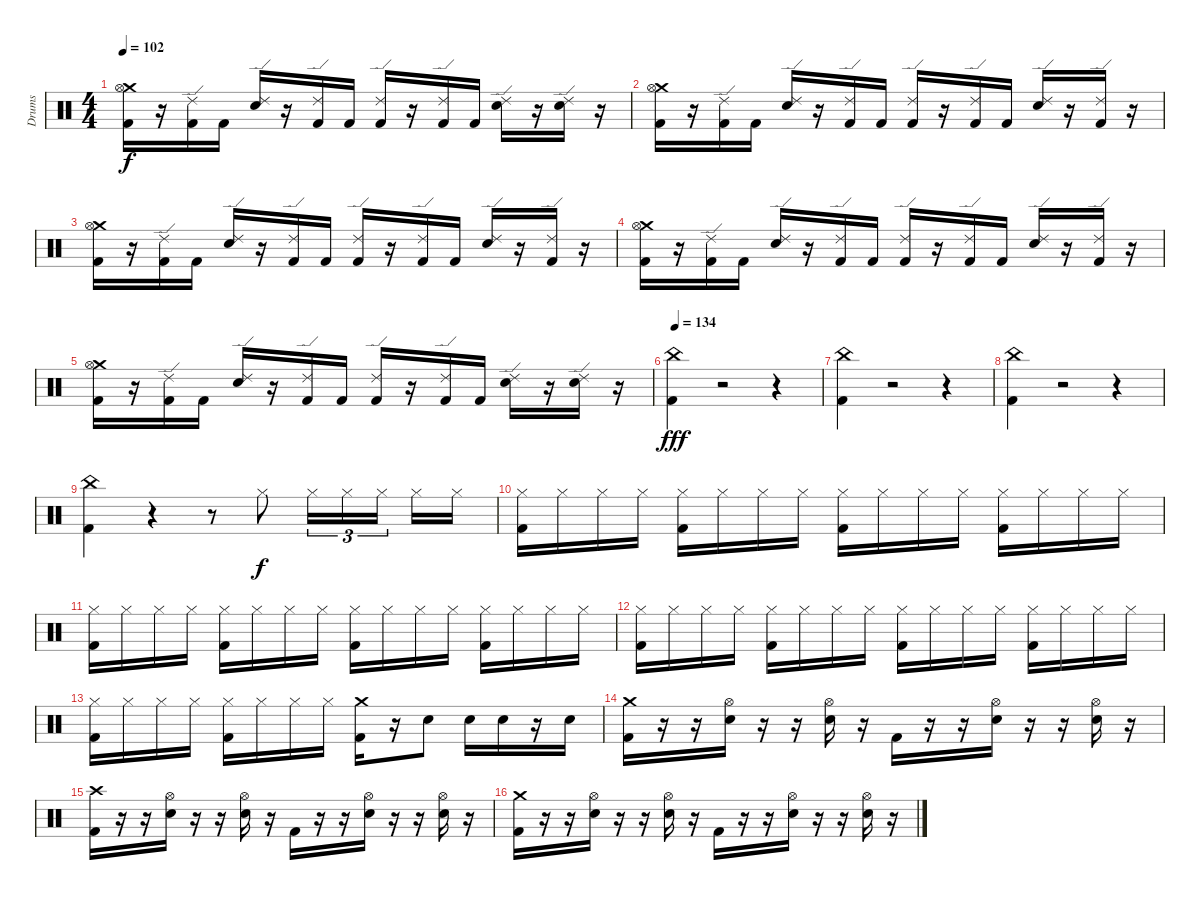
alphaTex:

\track ("Drums" "Drums") {instrument percussion}
\staff {score}
\articulation defaults
\ts (4 4)
\tempo 102
\clef neutral
\ks c
("Crash medium (hit)" "Hi-Hat (open)" "Kick (hit) 2").16{dy f} r.16 ("Ride (edge) 2" "Kick (hit) 2").16 "Kick (hit) 2".16 ("Ride (edge) 2" "Electric Snare (hit)").16 r.16 ("Ride (edge) 2" "Kick (hit) 2").16 "Kick (hit) 2".16 ("Ride (edge) 2" "Kick (hit) 2").16 r.16 ("Ride (edge) 2" "Kick (hit) 2").16 "Kick (hit) 2".16 ("Ride (edge) 2" "Electric Snare (hit)").16 r.16 ("Ride (edge) 2" "Electric Snare (hit)").16 r.16 |
("Crash medium (hit)" "Hi-Hat (open)" "Kick (hit) 2").16 r.16 ("Ride (edge) 2" "Kick (hit) 2").16 "Kick (hit) 2".16 ("Ride (edge) 2" "Electric Snare (hit)").16 r.16 ("Ride (edge) 2" "Kick (hit) 2").16 "Kick (hit) 2".16 ("Ride (edge) 2" "Kick (hit) 2").16 r.16 ("Ride (edge) 2" "Kick (hit) 2").16 "Kick (hit) 2".16 ("Ride (edge) 2" "Electric Snare (hit)").16 r.16 ("Ride (edge) 2" "Kick (hit) 2").16 r.16 |
("Crash medium (hit)" "Hi-Hat (open)" "Kick (hit) 2").16 r.16 ("Ride (edge) 2" "Kick (hit) 2").16 "Kick (hit) 2".16 ("Ride (edge) 2" "Electric Snare (hit)").16 r.16 ("Ride (edge) 2" "Kick (hit) 2").16 "Kick (hit) 2".16 ("Ride (edge) 2" "Kick (hit) 2").16 r.16 ("Ride (edge) 2" "Kick (hit) 2").16 "Kick (hit) 2".16 ("Ride (edge) 2" "Electric Snare (hit)").16 r.16 ("Ride (edge) 2" "Kick (hit) 2").16 r.16 |
("Crash medium (hit)" "Hi-Hat (open)" "Kick (hit) 2").16 r.16 ("Ride (edge) 2" "Kick (hit) 2").16 "Kick (hit) 2".16 ("Ride (edge) 2" "Electric Snare (hit)").16 r.16 ("Ride (edge) 2" "Kick (hit) 2").16 "Kick (hit) 2".16 ("Ride (edge) 2" "Kick (hit) 2").16 r.16 ("Ride (edge) 2" "Kick (hit) 2").16 "Kick (hit) 2".16 ("Ride (edge) 2" "Electric Snare (hit)").16 r.16 ("Ride (edge) 2" "Kick (hit) 2").16 r.16 |
("Crash medium (hit)" "Hi-Hat (open)" "Kick (hit) 2").16 r.16 ("Ride (edge) 2" "Kick (hit) 2").16 "Kick (hit) 2".16 ("Ride (edge) 2" "Electric Snare (hit)").16 r.16 ("Ride (edge) 2" "Kick (hit) 2").16 "Kick (hit) 2".16 ("Ride (edge) 2" "Kick (hit) 2").16 r.16 ("Ride (edge) 2" "Kick (hit) 2").16 "Kick (hit) 2".16 ("Ride (edge) 2" "Electric Snare (hit)").16 r.16 ("Ride (edge) 2" "Electric Snare (hit)").16 r.16 |
\section ("" "")
\tempo 134
("China (hit)" "Kick (hit) 2").4{dy fff} r.2 r.4 |
("China (hit)" "Kick (hit) 2").4 r.2 r.4 |
("China (hit)" "Kick (hit) 2").4 r.2 r.4 |
("China (hit)" "Kick (hit) 2").4 r.4 r.8 "Hi-Hat (closed)".8{dy f} "Hi-Hat (closed)".16{tu (3 2)} "Hi-Hat (closed)".16{tu (3 2)} "Hi-Hat (closed)".16{tu (3 2)} "Hi-Hat (closed)".16 "Hi-Hat (closed)".16 |
("Hi-Hat (closed)" "Kick (hit) 2").16 "Hi-Hat (closed)".16 "Hi-Hat (closed)".16 "Hi-Hat (closed)".16 ("Hi-Hat (closed)" "Kick (hit) 2").16 "Hi-Hat (closed)".16 "Hi-Hat (closed)".16 "Hi-Hat (closed)".16 ("Hi-Hat (closed)" "Kick (hit) 2").16 "Hi-Hat (closed)".16 "Hi-Hat (closed)".16 "Hi-Hat (closed)".16 ("Hi-Hat (closed)" "Kick (hit) 2").16 "Hi-Hat (closed)".16 "Hi-Hat (closed)".16 "Hi-Hat (closed)".16 |
("Hi-Hat (closed)" "Kick (hit) 2").16 "Hi-Hat (closed)".16 "Hi-Hat (closed)".16 "Hi-Hat (closed)".16 ("Hi-Hat (closed)" "Kick (hit) 2").16 "Hi-Hat (closed)".16 "Hi-Hat (closed)".16 "Hi-Hat (closed)".16 ("Hi-Hat (closed)" "Kick (hit) 2").16 "Hi-Hat (closed)".16 "Hi-Hat (closed)".16 "Hi-Hat (closed)".16 ("Hi-Hat (closed)" "Kick (hit) 2").16 "Hi-Hat (closed)".16 "Hi-Hat (closed)".16 "Hi-Hat (closed)".16 |
("Hi-Hat (closed)" "Kick (hit) 2").16 "Hi-Hat (closed)".16 "Hi-Hat (closed)".16 "Hi-Hat (closed)".16 ("Hi-Hat (closed)" "Kick (hit) 2").16 "Hi-Hat (closed)".16 "Hi-Hat (closed)".16 "Hi-Hat (closed)".16 ("Hi-Hat (closed)" "Kick (hit) 2").16 "Hi-Hat (closed)".16 "Hi-Hat (closed)".16 "Hi-Hat (closed)".16 ("Hi-Hat (closed)" "Kick (hit) 2").16 "Hi-Hat (closed)".16 "Hi-Hat (closed)".16 "Hi-Hat (closed)".16 |
("Hi-Hat (closed)" "Kick (hit) 2").16 "Hi-Hat (closed)".16 "Hi-Hat (closed)".16 "Hi-Hat (closed)".16 ("Hi-Hat (closed)" "Kick (hit) 2").16 "Hi-Hat (closed)".16 "Hi-Hat (closed)".16 "Hi-Hat (closed)".16 ("Crash medium (hit)" "Kick (hit) 2").16 r.16 "Electric Snare (hit)".8 "Electric Snare (hit)".16 "Electric Snare (hit)".16 r.16 "Electric Snare (hit)".16 |
("Crash medium (hit)" "Kick (hit) 2").16 r.16 r.16 ("Hi-Hat (open)" "Electric Snare (hit)").16 r.16 r.16 ("Hi-Hat (open)" "Electric Snare (hit)").16 r.16 "Kick (hit) 2".16 r.16 r.16 ("Hi-Hat (open)" "Electric Snare (hit)").16 r.16 r.16 ("Hi-Hat (open)" "Electric Snare (hit)").16 r.16 |
("Crash high (hit)" "Kick (hit) 2").16 r.16 r.16 ("Hi-Hat (open)" "Electric Snare (hit)").16 r.16 r.16 ("Hi-Hat (open)" "Electric Snare (hit)").16 r.16 "Kick (hit) 2".16 r.16 r.16 ("Hi-Hat (open)" "Electric Snare (hit)").16 r.16 r.16 ("Hi-Hat (open)" "Electric Snare (hit)").16 r.16 |
("Crash medium (hit)" "Kick (hit) 2").16 r.16 r.16 ("Hi-Hat (open)" "Electric Snare (hit)").16 r.16 r.16 ("Hi-Hat (open)" "Electric Snare (hit)").16 r.16 "Kick (hit) 2".16 r.16 r.16 ("Hi-Hat (open)" "Electric Snare (hit)").16 r.16 r.16 ("Hi-Hat (open)" "Electric Snare (hit)").16 r.16
